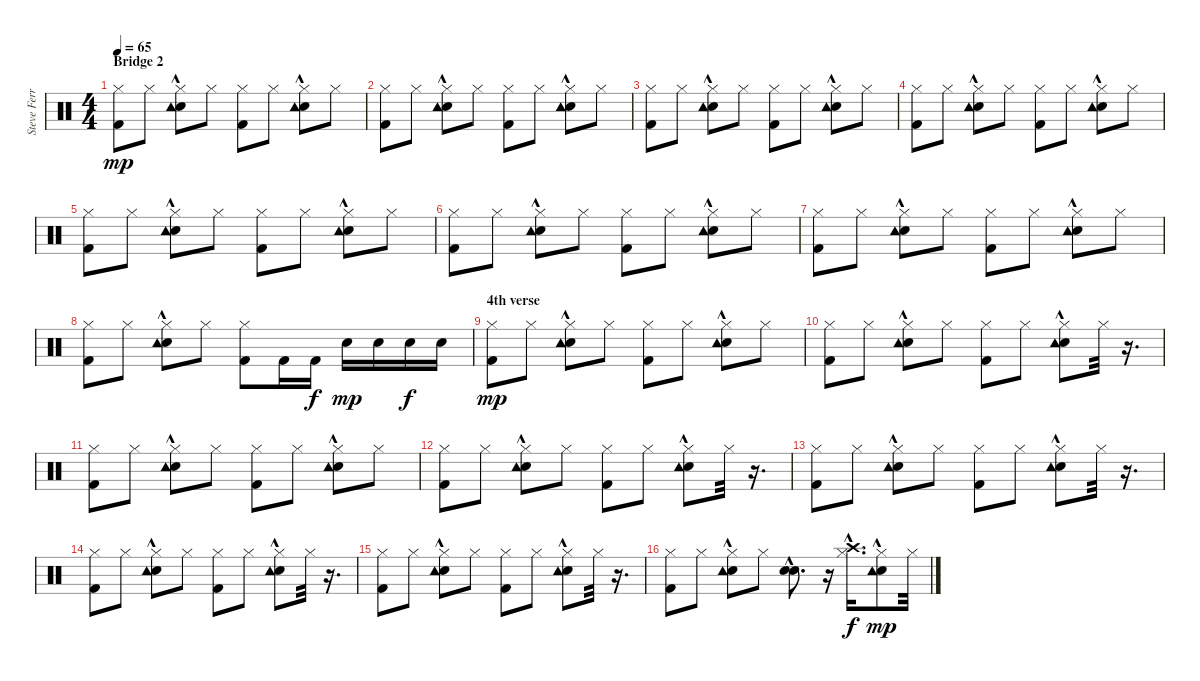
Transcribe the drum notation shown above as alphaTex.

\track ("Steve Ferrone & Ray Cooper" "Steve Ferr") {instrument percussion}
\staff {score}
\articulation defaults
\ts (4 4)
\section ("" "Bridge 2")
\tempo 65
\clef neutral
\ks c
("Kick (hit) 2" "Hi-Hat (closed)").8{dy mp} "Hi-Hat (closed)".8 ("Hi-Hat (closed)" "Snare (hit) 2"{hac} "Tambourine (hit)"{hac}).8 "Hi-Hat (closed)".8 ("Kick (hit) 2" "Hi-Hat (closed)").8 "Hi-Hat (closed)".8 ("Hi-Hat (closed)" "Snare (hit) 2" "Tambourine (hit)"{hac}).8 "Hi-Hat (closed)".8 |
("Kick (hit) 2" "Hi-Hat (closed)").8 "Hi-Hat (closed)".8 ("Hi-Hat (closed)" "Snare (hit) 2"{hac} "Tambourine (hit)"{hac}).8 "Hi-Hat (closed)".8 ("Kick (hit) 2" "Hi-Hat (closed)").8 "Hi-Hat (closed)".8 ("Hi-Hat (closed)" "Snare (hit) 2" "Tambourine (hit)"{hac}).8 "Hi-Hat (closed)".8 |
("Kick (hit) 2" "Hi-Hat (closed)").8 "Hi-Hat (closed)".8 ("Hi-Hat (closed)" "Snare (hit) 2"{hac} "Tambourine (hit)"{hac}).8 "Hi-Hat (closed)".8 ("Kick (hit) 2" "Hi-Hat (closed)").8 "Hi-Hat (closed)".8 ("Hi-Hat (closed)" "Snare (hit) 2" "Tambourine (hit)"{hac}).8 "Hi-Hat (closed)".8 |
("Kick (hit) 2" "Hi-Hat (closed)").8 "Hi-Hat (closed)".8 ("Hi-Hat (closed)" "Snare (hit) 2"{hac} "Tambourine (hit)"{hac}).8 "Hi-Hat (closed)".8 ("Kick (hit) 2" "Hi-Hat (closed)").8 "Hi-Hat (closed)".8 ("Hi-Hat (closed)" "Snare (hit) 2" "Tambourine (hit)"{hac}).8 "Hi-Hat (closed)".8 |
("Kick (hit) 2" "Hi-Hat (closed)").8 "Hi-Hat (closed)".8 ("Hi-Hat (closed)" "Snare (hit) 2"{hac} "Tambourine (hit)"{hac}).8 "Hi-Hat (closed)".8 ("Kick (hit) 2" "Hi-Hat (closed)").8 "Hi-Hat (closed)".8 ("Hi-Hat (closed)" "Snare (hit) 2" "Tambourine (hit)"{hac}).8 "Hi-Hat (closed)".8 |
("Kick (hit) 2" "Hi-Hat (closed)").8 "Hi-Hat (closed)".8 ("Hi-Hat (closed)" "Snare (hit) 2"{hac} "Tambourine (hit)"{hac}).8 "Hi-Hat (closed)".8 ("Kick (hit) 2" "Hi-Hat (closed)").8 "Hi-Hat (closed)".8 ("Hi-Hat (closed)" "Snare (hit) 2" "Tambourine (hit)"{hac}).8 "Hi-Hat (closed)".8 |
("Kick (hit) 2" "Hi-Hat (closed)").8 "Hi-Hat (closed)".8 ("Hi-Hat (closed)" "Snare (hit) 2"{hac} "Tambourine (hit)"{hac}).8 "Hi-Hat (closed)".8 ("Kick (hit) 2" "Hi-Hat (closed)").8 "Hi-Hat (closed)".8 ("Hi-Hat (closed)" "Snare (hit) 2" "Tambourine (hit)"{hac}).8 "Hi-Hat (closed)".8 |
("Kick (hit) 2" "Hi-Hat (closed)").8 "Hi-Hat (closed)".8 ("Hi-Hat (closed)" "Snare (hit) 2"{hac} "Tambourine (hit)"{hac}).8 "Hi-Hat (closed)".8 ("Kick (hit) 2" "Hi-Hat (closed)").8 "Kick (hit) 2".16 "Kick (hit) 2".16{dy f} "Snare (hit) 2".16{dy mp} "Snare (hit) 2".16 "Snare (hit) 2".16{dy f} "Snare (hit) 2".16 |
\section ("" "4th verse")
("Kick (hit) 2" "Hi-Hat (closed)").8{dy mp} "Hi-Hat (closed)".8 ("Hi-Hat (closed)" "Snare (hit) 2"{hac} "Tambourine (hit)"{hac}).8 "Hi-Hat (closed)".8 ("Kick (hit) 2" "Hi-Hat (closed)").8 "Hi-Hat (closed)".8 ("Hi-Hat (closed)" "Snare (hit) 2" "Tambourine (hit)"{hac}).8 "Hi-Hat (closed)".8 |
("Kick (hit) 2" "Hi-Hat (closed)").8 "Hi-Hat (closed)".8 ("Hi-Hat (closed)" "Snare (hit) 2"{hac} "Tambourine (hit)"{hac}).8 "Hi-Hat (closed)".8 ("Kick (hit) 2" "Hi-Hat (closed)").8 "Hi-Hat (closed)".8 ("Hi-Hat (closed)" "Snare (hit) 2" "Tambourine (hit)"{hac}).8 "Hi-Hat (closed)".32 r.16{d} |
("Kick (hit) 2" "Hi-Hat (closed)").8 "Hi-Hat (closed)".8 ("Hi-Hat (closed)" "Snare (hit) 2"{hac} "Tambourine (hit)"{hac}).8 "Hi-Hat (closed)".8 ("Kick (hit) 2" "Hi-Hat (closed)").8 "Hi-Hat (closed)".8 ("Hi-Hat (closed)" "Snare (hit) 2" "Tambourine (hit)"{hac}).8 "Hi-Hat (closed)".8 |
("Kick (hit) 2" "Hi-Hat (closed)").8 "Hi-Hat (closed)".8 ("Hi-Hat (closed)" "Snare (hit) 2"{hac} "Tambourine (hit)"{hac}).8 "Hi-Hat (closed)".8 ("Kick (hit) 2" "Hi-Hat (closed)").8 "Hi-Hat (closed)".8 ("Hi-Hat (closed)" "Snare (hit) 2" "Tambourine (hit)"{hac}).8 "Hi-Hat (closed)".32 r.16{d} |
("Kick (hit) 2" "Hi-Hat (closed)").8 "Hi-Hat (closed)".8 ("Hi-Hat (closed)" "Snare (hit) 2"{hac} "Tambourine (hit)"{hac}).8 "Hi-Hat (closed)".8 ("Kick (hit) 2" "Hi-Hat (closed)").8 "Hi-Hat (closed)".8 ("Hi-Hat (closed)" "Snare (hit) 2" "Tambourine (hit)"{hac}).8 "Hi-Hat (closed)".32 r.16{d} |
("Kick (hit) 2" "Hi-Hat (closed)").8 "Hi-Hat (closed)".8 ("Hi-Hat (closed)" "Snare (hit) 2"{hac} "Tambourine (hit)"{hac}).8 "Hi-Hat (closed)".8 ("Kick (hit) 2" "Hi-Hat (closed)").8 "Hi-Hat (closed)".8 ("Hi-Hat (closed)" "Snare (hit) 2" "Tambourine (hit)"{hac}).8 "Hi-Hat (closed)".32 r.16{d} |
("Kick (hit) 2" "Hi-Hat (closed)").8 "Hi-Hat (closed)".8 ("Hi-Hat (closed)" "Snare (hit) 2"{hac} "Tambourine (hit)"{hac}).8 "Hi-Hat (closed)".8 ("Kick (hit) 2" "Hi-Hat (closed)").8 "Hi-Hat (closed)".8 ("Hi-Hat (closed)" "Snare (hit) 2" "Tambourine (hit)"{hac}).8 "Hi-Hat (closed)".32 r.16{d} |
("Kick (hit) 2" "Hi-Hat (closed)").8 "Hi-Hat (closed)".8 ("Hi-Hat (closed)" "Snare (hit) 2"{hac} "Tambourine (hit)"{hac}).8 "Hi-Hat (closed)".8 ("Snare (hit) 2"{hac} "Snare (hit) 2"{hac}).8{d} r.16 ("Hi-Hat (closed)"{hac} "Crash high (hit)"{hac}).16{d dy f} ("Hi-Hat (closed)" "Snare (hit) 2" "Tambourine (hit)"{hac}).8{dy mp} "Hi-Hat (closed)".32
